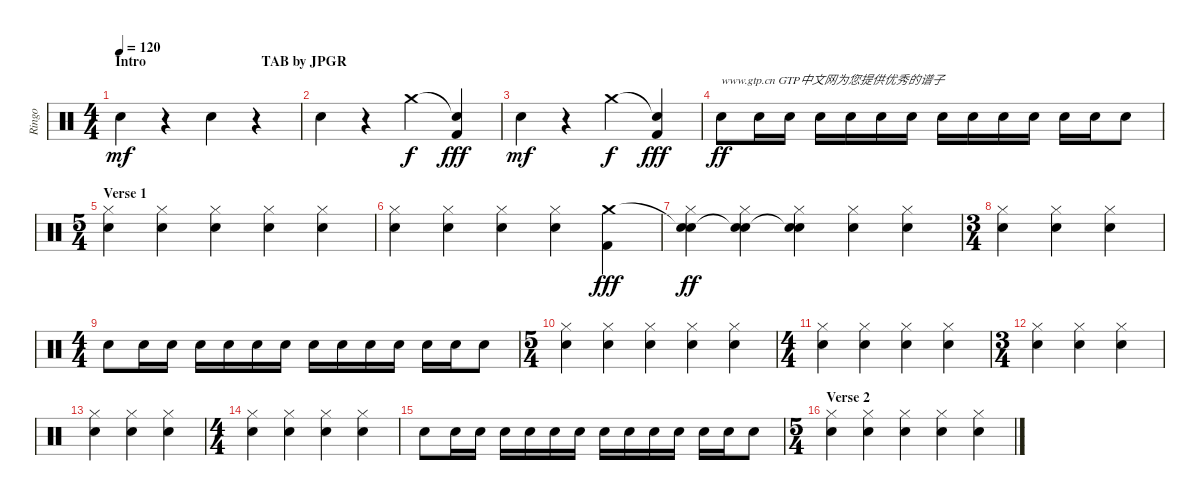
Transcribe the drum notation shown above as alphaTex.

\track ("Ringo" "Ringo") {instrument percussion}
\staff {score}
\articulation defaults
\ts (4 4)
\section ("" "Intro                                 TAB by JPGR")
\tempo 120
\clef neutral
\ks c "Snare (hit) 2".4{dy mf}
r.4 "Snare (hit) 2".4 r.4 |
"Snare (hit) 2".4 r.4 "Crash medium (hit)".4{dy f} ("Snare (hit)"{t} "Kick (hit) 2").4{dy fff} |
"Snare (hit) 2".4{dy mf} r.4 "Crash medium (hit)".4{dy f} ("Snare (hit)"{t} "Kick (hit) 2").4{dy fff} |
"Snare (hit) 2".8{txt "www.gtp.cn GTP中文网为您提供优秀的谱子" dy ff} "Snare (hit) 2".16 "Snare (hit) 2".16 "Snare (hit) 2".16 "Snare (hit) 2".16 "Snare (hit) 2".16 "Snare (hit) 2".16 "Snare (hit) 2".16 "Snare (hit) 2".16 "Snare (hit) 2".16 "Snare (hit) 2".16 "Snare (hit) 2".16 "Snare (hit) 2".16 "Snare (hit) 2".8 |
\ts (5 4)
\section ("" "Verse 1")
("Hi-Hat (closed)" "Snare (hit) 2").4 ("Hi-Hat (closed)" "Snare (hit) 2").4 ("Hi-Hat (closed)" "Snare (hit) 2").4 ("Hi-Hat (closed)" "Snare (hit) 2").4 ("Hi-Hat (closed)" "Snare (hit) 2").4 |
("Hi-Hat (closed)" "Snare (hit) 2").4 ("Hi-Hat (closed)" "Snare (hit) 2").4 ("Hi-Hat (closed)" "Snare (hit) 2").4 ("Hi-Hat (closed)" "Snare (hit) 2").4 ("Crash medium (hit)" "Kick (hit) 2").4{dy fff} |
("Snare (hit)"{t} "Hi-Hat (closed)" "Snare (hit) 2").4{dy ff} ("Snare (hit)"{t} "Hi-Hat (closed)" "Snare (hit) 2").4 ("Snare (hit)"{t} "Hi-Hat (closed)" "Snare (hit) 2").4 ("Hi-Hat (closed)" "Snare (hit) 2").4 ("Hi-Hat (closed)" "Snare (hit) 2").4 |
\ts (3 4)
("Hi-Hat (closed)" "Snare (hit) 2").4 ("Hi-Hat (closed)" "Snare (hit) 2").4 ("Hi-Hat (closed)" "Snare (hit) 2").4 |
\ts (4 4)
"Snare (hit) 2".8 "Snare (hit) 2".16 "Snare (hit) 2".16 "Snare (hit) 2".16 "Snare (hit) 2".16 "Snare (hit) 2".16 "Snare (hit) 2".16 "Snare (hit) 2".16 "Snare (hit) 2".16 "Snare (hit) 2".16 "Snare (hit) 2".16 "Snare (hit) 2".16 "Snare (hit) 2".16 "Snare (hit) 2".8 |
\ts (5 4)
("Hi-Hat (closed)" "Snare (hit) 2").4 ("Hi-Hat (closed)" "Snare (hit) 2").4 ("Hi-Hat (closed)" "Snare (hit) 2").4 ("Hi-Hat (closed)" "Snare (hit) 2").4 ("Hi-Hat (closed)" "Snare (hit) 2").4 |
\ts (4 4)
("Hi-Hat (closed)" "Snare (hit) 2").4 ("Hi-Hat (closed)" "Snare (hit) 2").4 ("Hi-Hat (closed)" "Snare (hit) 2").4 ("Hi-Hat (closed)" "Snare (hit) 2").4 |
\ts (3 4)
("Hi-Hat (closed)" "Snare (hit) 2").4 ("Hi-Hat (closed)" "Snare (hit) 2").4 ("Hi-Hat (closed)" "Snare (hit) 2").4 |
("Hi-Hat (closed)" "Snare (hit) 2").4 ("Hi-Hat (closed)" "Snare (hit) 2").4 ("Hi-Hat (closed)" "Snare (hit) 2").4 |
\ts (4 4)
("Hi-Hat (closed)" "Snare (hit) 2").4 ("Hi-Hat (closed)" "Snare (hit) 2").4 ("Hi-Hat (closed)" "Snare (hit) 2").4 ("Hi-Hat (closed)" "Snare (hit) 2").4 |
"Snare (hit) 2".8 "Snare (hit) 2".16 "Snare (hit) 2".16 "Snare (hit) 2".16 "Snare (hit) 2".16 "Snare (hit) 2".16 "Snare (hit) 2".16 "Snare (hit) 2".16 "Snare (hit) 2".16 "Snare (hit) 2".16 "Snare (hit) 2".16 "Snare (hit) 2".16 "Snare (hit) 2".16 "Snare (hit) 2".8 |
\ts (5 4)
\section ("" "Verse 2")
("Hi-Hat (closed)" "Snare (hit) 2").4 ("Hi-Hat (closed)" "Snare (hit) 2").4 ("Hi-Hat (closed)" "Snare (hit) 2").4 ("Hi-Hat (closed)" "Snare (hit) 2").4 ("Hi-Hat (closed)" "Snare (hit) 2").4
